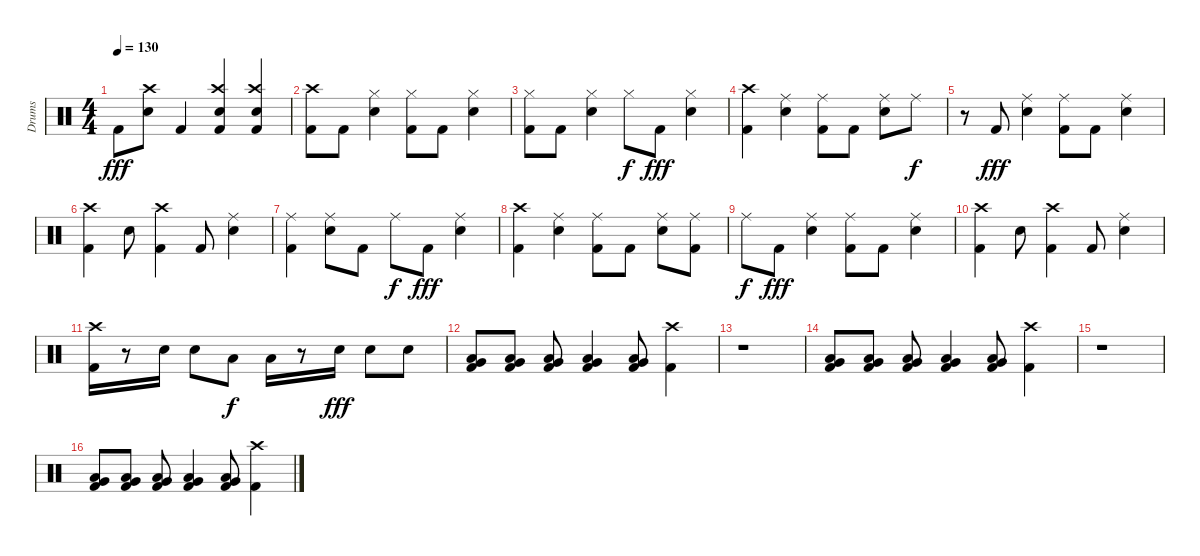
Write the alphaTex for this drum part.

\track ("Drums" "Drums") {instrument percussion}
\staff {score}
\articulation defaults
\ts (4 4)
\tempo 130
\clef neutral
\ks c "Kick (hit) 2".8{dy fff}
("Crash high (hit)" "Snare (hit) 2").8 "Kick (hit) 2".4 ("Crash high (hit)" "Kick (hit) 2" "Snare (hit) 2").4 ("Crash high (hit)" "Kick (hit) 2" "Snare (hit) 2").4 |
("Crash high (hit)" "Kick (hit) 2").8 "Kick (hit) 2".8 ("Hi-Hat (closed)" "Snare (hit) 2").4 ("Kick (hit) 2" "Hi-Hat (closed)").8 "Kick (hit) 2".8 ("Hi-Hat (closed)" "Snare (hit) 2").4 |
("Kick (hit) 2" "Hi-Hat (closed)").8 "Kick (hit) 2".8 ("Hi-Hat (closed)" "Snare (hit) 2").4 "Hi-Hat (closed)".8{dy f} "Kick (hit) 2".8{dy fff} ("Hi-Hat (closed)" "Snare (hit) 2").4 |
("Crash high (hit)" "Kick (hit) 2").4 ("Ride (middle)" "Snare (hit) 2").4 ("Kick (hit) 2" "Ride (middle)").8 "Kick (hit) 2".8 ("Ride (middle)" "Snare (hit) 2").8 "Ride (middle)".8{dy f} |
r.8 "Kick (hit) 2".8{dy fff} ("Ride (middle)" "Snare (hit) 2").4 ("Kick (hit) 2" "Ride (middle)").8 "Kick (hit) 2".8 ("Ride (middle)" "Snare (hit) 2").4 |
("Crash high (hit)" "Kick (hit) 2").4 "Snare (hit) 2".8 ("Crash high (hit)" "Kick (hit) 2").4 "Kick (hit) 2".8 ("Ride (middle)" "Snare (hit) 2").4 |
("Kick (hit) 2" "Ride (middle)").4 ("Ride (middle)" "Snare (hit) 2").8 "Kick (hit) 2".8 "Ride (middle)".8{dy f} "Kick (hit) 2".8{dy fff} ("Ride (middle)" "Snare (hit) 2").4 |
("Crash high (hit)" "Kick (hit) 2").4 ("Ride (middle)" "Snare (hit) 2").4 ("Kick (hit) 2" "Ride (middle)").8 "Kick (hit) 2".8 ("Ride (middle)" "Snare (hit) 2").8 ("Kick (hit) 2" "Ride (middle)").8 |
"Ride (middle)".8{dy f} "Kick (hit) 2".8{dy fff} ("Ride (middle)" "Snare (hit) 2").4 ("Kick (hit) 2" "Ride (middle)").8 "Kick (hit) 2".8 ("Ride (middle)" "Snare (hit) 2").4 |
("Crash high (hit)" "Kick (hit) 2").4 "Snare (hit) 2".8 ("Crash high (hit)" "Kick (hit) 2").4 "Kick (hit) 2".8 ("Ride (middle)" "Snare (hit) 2").4 |
("Crash high (hit)" "Kick (hit) 2").16 r.8 "Snare (hit) 2".16 "Snare (hit) 2".8 "Low Tom (hit)".8{dy f} "Low Tom (hit)".16 r.8 "Snare (hit) 2".16{dy fff} "Snare (hit) 2".8 "Snare (hit) 2".8 |
("Low Tom (hit)" "Kick (hit) 2" "Very Low Tom (hit)").8 ("Kick (hit) 2" "Low Tom (hit)" "Very Low Tom (hit)").8 ("Low Tom (hit)" "Very Low Tom (hit)" "Kick (hit) 2").8 ("Low Tom (hit)" "Kick (hit) 2" "Very Low Tom (hit)").4 ("Kick (hit) 2" "Low Tom (hit)" "Very Low Tom (hit)").8 ("Kick (hit) 2" "Crash high (hit)").4 |
r.1 |
("Low Tom (hit)" "Very Low Tom (hit)" "Kick (hit) 2").8 ("Low Tom (hit)" "Very Low Tom (hit)" "Kick (hit) 2").8 ("Low Tom (hit)" "Very Low Tom (hit)" "Kick (hit) 2").8 ("Low Tom (hit)" "Very Low Tom (hit)" "Kick (hit) 2").4 ("Low Tom (hit)" "Very Low Tom (hit)" "Kick (hit) 2").8 ("Kick (hit) 2" "Crash high (hit)").4 |
r.1 |
("Low Tom (hit)" "Very Low Tom (hit)" "Kick (hit) 2").8 ("Low Tom (hit)" "Very Low Tom (hit)" "Kick (hit) 2").8 ("Low Tom (hit)" "Very Low Tom (hit)" "Kick (hit) 2").8 ("Low Tom (hit)" "Very Low Tom (hit)" "Kick (hit) 2").4 ("Low Tom (hit)" "Very Low Tom (hit)" "Kick (hit) 2").8 ("Kick (hit) 2" "Crash high (hit)").4
